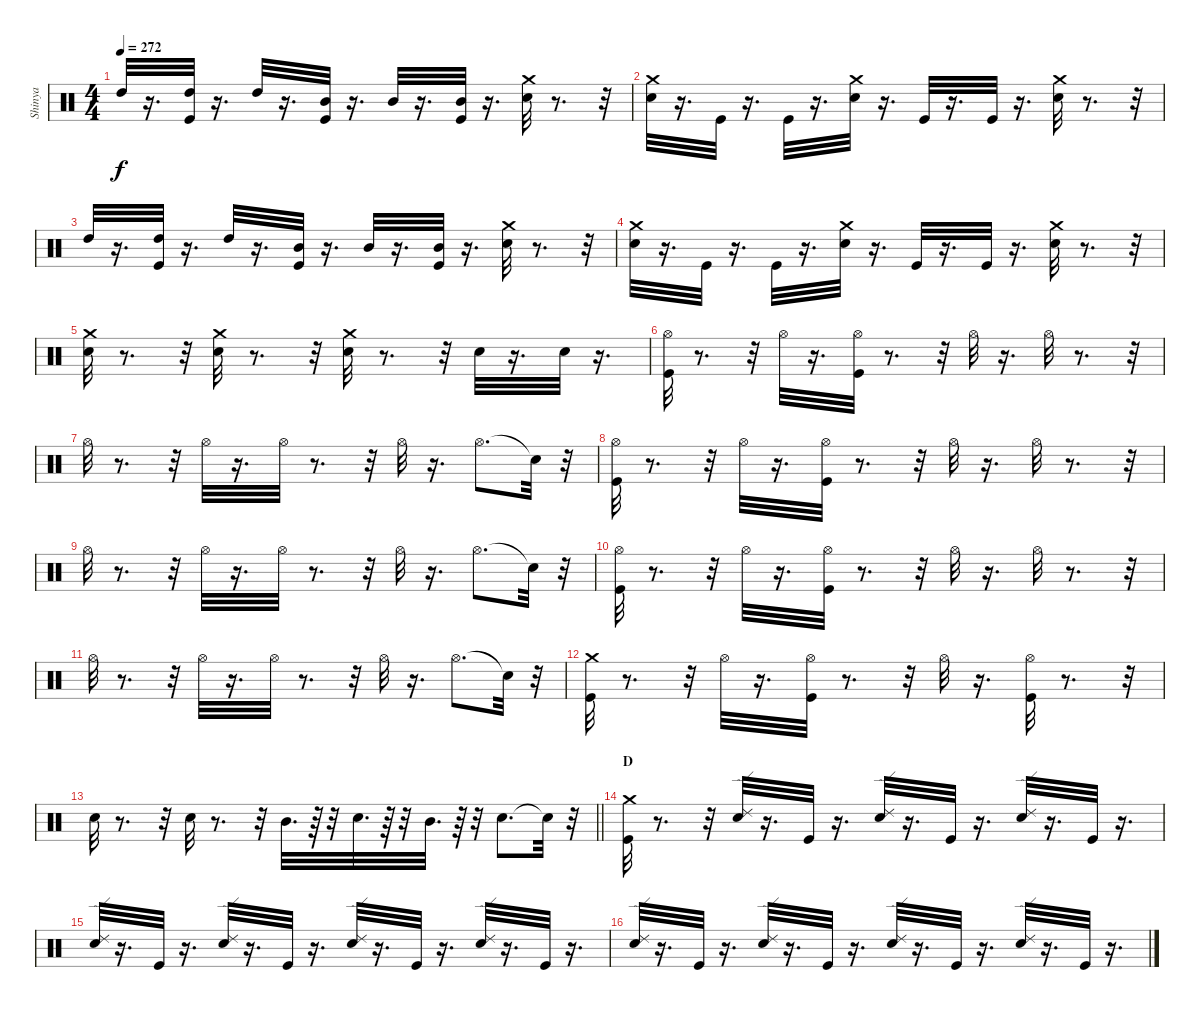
\track ("Shinya" "Shinya") {instrument percussion}
\staff {score}
\articulation defaults
\ts (4 4)
\tempo 272
\clef neutral
\ks c "High Tom (hit)".32{dy f}
r.16{d} ("Kick (hit)" "High Tom (hit)").32 r.16{d} "High Tom (hit)".32 r.16{d} ("Kick (hit)" "Mid Tom (hit)").32 r.16{d} "Mid Tom (hit)".32 r.16{d} ("Kick (hit)" "Mid Tom (hit)").32 r.16{d} ("Crash medium (hit)" "Snare (hit) 2").32 r.8{d} r.32 |
("Snare (hit) 2" "Crash medium (hit)").32 r.16{d} "Kick (hit)".32 r.16{d} "Kick (hit)".32 r.16{d} ("Crash medium (hit)" "Snare (hit) 2").32 r.16{d} "Kick (hit)".32 r.16{d} "Kick (hit)".32 r.16{d} ("Snare (hit) 2" "Crash medium (hit)").32 r.8{d} r.32 |
"High Tom (hit)".32 r.16{d} ("Kick (hit)" "High Tom (hit)").32 r.16{d} "High Tom (hit)".32 r.16{d} ("Kick (hit)" "Mid Tom (hit)").32 r.16{d} "Mid Tom (hit)".32 r.16{d} ("Kick (hit)" "Mid Tom (hit)").32 r.16{d} ("Crash medium (hit)" "Snare (hit) 2").32 r.8{d} r.32 |
("Snare (hit) 2" "Crash medium (hit)").32 r.16{d} "Kick (hit)".32 r.16{d} "Kick (hit)".32 r.16{d} ("Crash medium (hit)" "Snare (hit) 2").32 r.16{d} "Kick (hit)".32 r.16{d} "Kick (hit)".32 r.16{d} ("Snare (hit) 2" "Crash medium (hit)").32 r.8{d} r.32 |
("Snare (hit) 2" "Crash medium (hit)").32 r.8{d} r.32 ("Snare (hit) 2" "Crash medium (hit)").32 r.8{d} r.32 ("Snare (hit) 2" "Crash medium (hit)").32 r.8{d} r.32 "Snare (hit) 2".32 r.16{d} "Snare (hit) 2".32 r.16{d} |
("Kick (hit)" "Hi-Hat (open)").32 r.8{d} r.32 "Hi-Hat (open)".32 r.16{d} ("Hi-Hat (open)" "Kick (hit)").32 r.8{d} r.32 "Hi-Hat (open)".32 r.16{d} "Hi-Hat (open)".32 r.8{d} r.32 |
"Hi-Hat (open)".32 r.8{d} r.32 "Hi-Hat (open)".32 r.16{d} "Hi-Hat (open)".32 r.8{d} r.32 "Hi-Hat (open)".32 r.16{d} "Hi-Hat (open)".8{d} "Snare (hit)"{t}.32 r.32 |
("Kick (hit)" "Hi-Hat (open)").32 r.8{d} r.32 "Hi-Hat (open)".32 r.16{d} ("Hi-Hat (open)" "Kick (hit)").32 r.8{d} r.32 "Hi-Hat (open)".32 r.16{d} "Hi-Hat (open)".32 r.8{d} r.32 |
"Hi-Hat (open)".32 r.8{d} r.32 "Hi-Hat (open)".32 r.16{d} "Hi-Hat (open)".32 r.8{d} r.32 "Hi-Hat (open)".32 r.16{d} "Hi-Hat (open)".8{d} "Snare (hit)"{t}.32 r.32 |
("Kick (hit)" "Hi-Hat (open)").32 r.8{d} r.32 "Hi-Hat (open)".32 r.16{d} ("Hi-Hat (open)" "Kick (hit)").32 r.8{d} r.32 "Hi-Hat (open)".32 r.16{d} "Hi-Hat (open)".32 r.8{d} r.32 |
"Hi-Hat (open)".32 r.8{d} r.32 "Hi-Hat (open)".32 r.16{d} "Hi-Hat (open)".32 r.8{d} r.32 "Hi-Hat (open)".32 r.16{d} "Hi-Hat (open)".8{d} "Snare (hit)"{t}.32 r.32 |
("Kick (hit)" "Crash medium (hit)").32 r.8{d} r.32 "Hi-Hat (open)".32 r.16{d} ("Kick (hit)" "Hi-Hat (open)").32 r.8{d} r.32 "Hi-Hat (open)".32 r.16{d} ("Hi-Hat (open)" "Kick (hit)").32 r.8{d} r.32 |
\barLineRight lightlight "Snare (hit) 2".32
r.8{d} r.32 "Snare (hit) 2".32 r.8{d} r.32 "Mid Tom (hit)".32{d} r.64 r.32 "Snare (hit) 2".32{d} r.64 r.32 "Mid Tom (hit)".32{d} r.64 r.32 "Snare (hit) 2".8{d} "Snare (hit)"{t}.32 r.32 |
\section ("" "D")
("Kick (hit)" "Crash medium (hit)").32 r.8{d} r.32 ("Ride (edge) 2" "Snare (hit) 2").32 r.16{d} "Kick (hit)".32 r.16{d} ("Ride (edge) 2" "Snare (hit) 2").32 r.16{d} "Kick (hit)".32 r.16{d} ("Ride (edge) 2" "Snare (hit) 2").32 r.16{d} "Kick (hit)".32 r.16{d} |
("Ride (edge) 2" "Snare (hit) 2").32 r.16{d} "Kick (hit)".32 r.16{d} ("Ride (edge) 2" "Snare (hit) 2").32 r.16{d} "Kick (hit)".32 r.16{d} ("Ride (edge) 2" "Snare (hit) 2").32 r.16{d} "Kick (hit)".32 r.16{d} ("Ride (edge) 2" "Snare (hit) 2").32 r.16{d} "Kick (hit)".32 r.16{d} |
("Ride (edge) 2" "Snare (hit) 2").32 r.16{d} "Kick (hit)".32 r.16{d} ("Ride (edge) 2" "Snare (hit) 2").32 r.16{d} "Kick (hit)".32 r.16{d} ("Ride (edge) 2" "Snare (hit) 2").32 r.16{d} "Kick (hit)".32 r.16{d} ("Ride (edge) 2" "Snare (hit) 2").32 r.16{d} "Kick (hit)".32 r.16{d}
